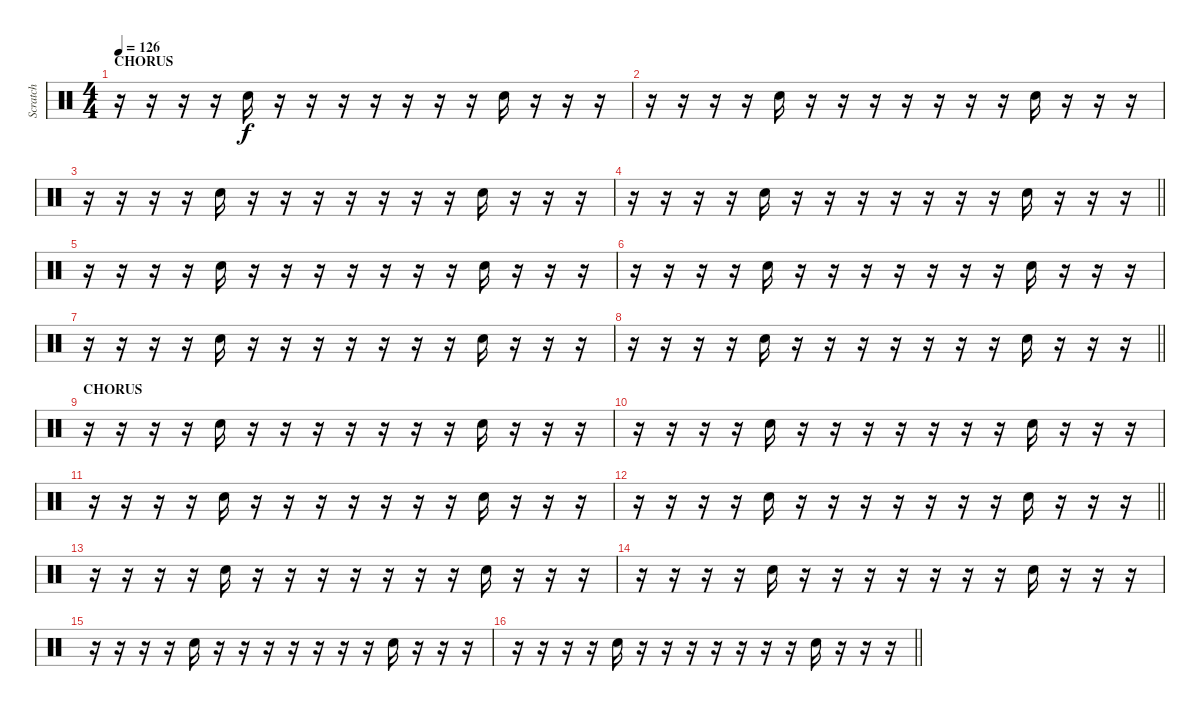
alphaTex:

\track ("Scratch" "Scratch") {instrument percussion}
\staff {score}
\articulation defaults
\ts (4 4)
\section ("" "CHORUS")
\tempo 126
\clef neutral
\ks c
r.16{dy f} r.16 r.16 r.16 "Hand Clap (hit)".16 r.16 r.16 r.16 r.16 r.16 r.16 r.16 "Hand Clap (hit)".16 r.16 r.16 r.16 |
r.16 r.16 r.16 r.16 "Hand Clap (hit)".16 r.16 r.16 r.16 r.16 r.16 r.16 r.16 "Hand Clap (hit)".16 r.16 r.16 r.16 |
r.16 r.16 r.16 r.16 "Hand Clap (hit)".16 r.16 r.16 r.16 r.16 r.16 r.16 r.16 "Hand Clap (hit)".16 r.16 r.16 r.16 |
\barLineRight lightlight
r.16 r.16 r.16 r.16 "Hand Clap (hit)".16 r.16 r.16 r.16 r.16 r.16 r.16 r.16 "Hand Clap (hit)".16 r.16 r.16 r.16 |
r.16 r.16 r.16 r.16 "Hand Clap (hit)".16 r.16 r.16 r.16 r.16 r.16 r.16 r.16 "Hand Clap (hit)".16 r.16 r.16 r.16 |
r.16 r.16 r.16 r.16 "Hand Clap (hit)".16 r.16 r.16 r.16 r.16 r.16 r.16 r.16 "Hand Clap (hit)".16 r.16 r.16 r.16 |
r.16 r.16 r.16 r.16 "Hand Clap (hit)".16 r.16 r.16 r.16 r.16 r.16 r.16 r.16 "Hand Clap (hit)".16 r.16 r.16 r.16 |
\barLineRight lightlight
r.16 r.16 r.16 r.16 "Hand Clap (hit)".16 r.16 r.16 r.16 r.16 r.16 r.16 r.16 "Hand Clap (hit)".16 r.16 r.16 r.16 |
\section ("" "CHORUS")
r.16 r.16 r.16 r.16 "Hand Clap (hit)".16 r.16 r.16 r.16 r.16 r.16 r.16 r.16 "Hand Clap (hit)".16 r.16 r.16 r.16 |
r.16 r.16 r.16 r.16 "Hand Clap (hit)".16 r.16 r.16 r.16 r.16 r.16 r.16 r.16 "Hand Clap (hit)".16 r.16 r.16 r.16 |
r.16 r.16 r.16 r.16 "Hand Clap (hit)".16 r.16 r.16 r.16 r.16 r.16 r.16 r.16 "Hand Clap (hit)".16 r.16 r.16 r.16 |
\barLineRight lightlight
r.16 r.16 r.16 r.16 "Hand Clap (hit)".16 r.16 r.16 r.16 r.16 r.16 r.16 r.16 "Hand Clap (hit)".16 r.16 r.16 r.16 |
r.16 r.16 r.16 r.16 "Hand Clap (hit)".16 r.16 r.16 r.16 r.16 r.16 r.16 r.16 "Hand Clap (hit)".16 r.16 r.16 r.16 |
r.16 r.16 r.16 r.16 "Hand Clap (hit)".16 r.16 r.16 r.16 r.16 r.16 r.16 r.16 "Hand Clap (hit)".16 r.16 r.16 r.16 |
r.16 r.16 r.16 r.16 "Hand Clap (hit)".16 r.16 r.16 r.16 r.16 r.16 r.16 r.16 "Hand Clap (hit)".16 r.16 r.16 r.16 |
\barLineRight lightlight
r.16 r.16 r.16 r.16 "Hand Clap (hit)".16 r.16 r.16 r.16 r.16 r.16 r.16 r.16 "Hand Clap (hit)".16 r.16 r.16 r.16
